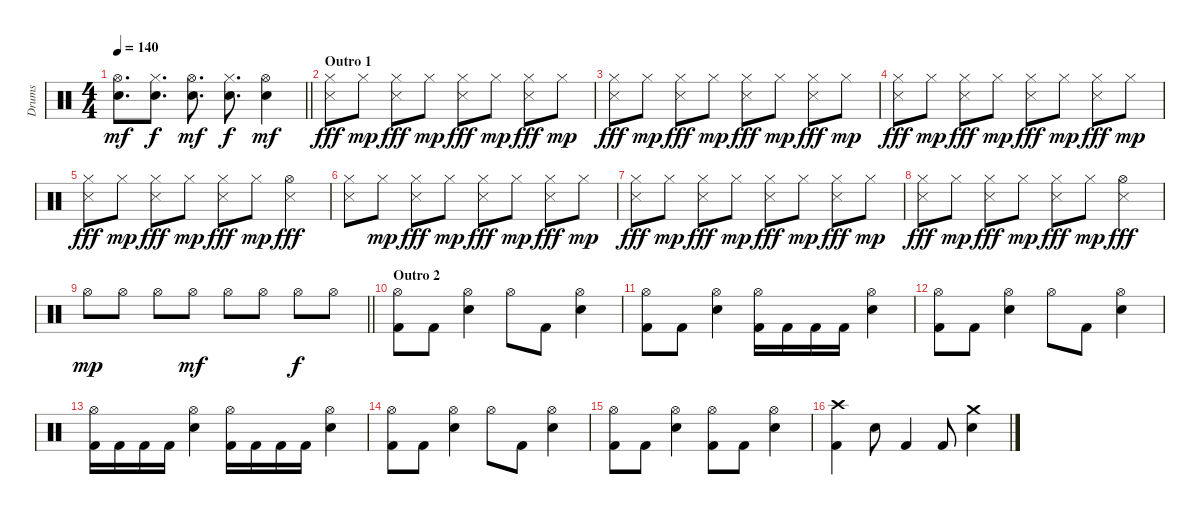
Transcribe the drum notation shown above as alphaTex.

\track ("Drums" "Drums") {instrument percussion}
\staff {score}
\articulation defaults
\ts (4 4)
\tempo 140
\clef neutral
\barLineRight lightlight
\ks c
("Hi-Hat (open)" "Snare (hit) 2").8{d dy mf} ("Hi-Hat (closed)" "Snare (hit) 2").8{d dy f} ("Hi-Hat (open)" "Snare (hit) 2").8{d dy mf} ("Hi-Hat (closed)" "Snare (hit) 2").8{d dy f} ("Hi-Hat (open)" "Snare (hit) 2").4{dy mf} |
\section ("" "Outro 1")
("Hi-Hat (closed)" "Snare (side stick) 3").8{dy fff} "Hi-Hat (closed)".8{dy mp} ("Hi-Hat (closed)" "Snare (side stick) 3").8{dy fff} "Hi-Hat (closed)".8{dy mp} ("Hi-Hat (closed)" "Snare (side stick) 3").8{dy fff} "Hi-Hat (closed)".8{dy mp} ("Hi-Hat (closed)" "Snare (side stick) 3").8{dy fff} "Hi-Hat (closed)".8{dy mp} |
("Hi-Hat (closed)" "Snare (side stick) 3").8{dy fff} "Hi-Hat (closed)".8{dy mp} ("Hi-Hat (closed)" "Snare (side stick) 3").8{dy fff} "Hi-Hat (closed)".8{dy mp} ("Hi-Hat (closed)" "Snare (side stick) 3").8{dy fff} "Hi-Hat (closed)".8{dy mp} ("Hi-Hat (closed)" "Snare (side stick) 3").8{dy fff} "Hi-Hat (closed)".8{dy mp} |
("Hi-Hat (closed)" "Snare (side stick) 3").8{dy fff} "Hi-Hat (closed)".8{dy mp} ("Hi-Hat (closed)" "Snare (side stick) 3").8{dy fff} "Hi-Hat (closed)".8{dy mp} ("Hi-Hat (closed)" "Snare (side stick) 3").8{dy fff} "Hi-Hat (closed)".8{dy mp} ("Hi-Hat (closed)" "Snare (side stick) 3").8{dy fff} "Hi-Hat (closed)".8{dy mp} |
("Hi-Hat (closed)" "Snare (side stick) 3").8{dy fff} "Hi-Hat (closed)".8{dy mp} ("Hi-Hat (closed)" "Snare (side stick) 3").8{dy fff} "Hi-Hat (closed)".8{dy mp} ("Hi-Hat (closed)" "Snare (side stick) 3").8{dy fff} "Hi-Hat (closed)".8{dy mp} ("Hi-Hat (open)" "Snare (side stick) 3").4{dy fff} |
("Hi-Hat (closed)" "Snare (side stick) 3").8 "Hi-Hat (closed)".8{dy mp} ("Hi-Hat (closed)" "Snare (side stick) 3").8{dy fff} "Hi-Hat (closed)".8{dy mp} ("Hi-Hat (closed)" "Snare (side stick) 3").8{dy fff} "Hi-Hat (closed)".8{dy mp} ("Hi-Hat (closed)" "Snare (side stick) 3").8{dy fff} "Hi-Hat (closed)".8{dy mp} |
("Hi-Hat (closed)" "Snare (side stick) 3").8{dy fff} "Hi-Hat (closed)".8{dy mp} ("Hi-Hat (closed)" "Snare (side stick) 3").8{dy fff} "Hi-Hat (closed)".8{dy mp} ("Hi-Hat (closed)" "Snare (side stick) 3").8{dy fff} "Hi-Hat (closed)".8{dy mp} ("Hi-Hat (closed)" "Snare (side stick) 3").8{dy fff} "Hi-Hat (closed)".8{dy mp} |
("Hi-Hat (closed)" "Snare (side stick) 3").8{dy fff} "Hi-Hat (closed)".8{dy mp} ("Hi-Hat (closed)" "Snare (side stick) 3").8{dy fff} "Hi-Hat (closed)".8{dy mp} ("Hi-Hat (closed)" "Snare (side stick) 3").8{dy fff} "Hi-Hat (closed)".8{dy mp} ("Hi-Hat (open)" "Snare (side stick) 3").4{dy fff} |
\barLineRight lightlight "Hi-Hat (open)".8{dy mp} "Hi-Hat (open)".8 "Hi-Hat (open)".8 "Hi-Hat (open)".8{dy mf} "Hi-Hat (open)".8 "Hi-Hat (open)".8 "Hi-Hat (open)".8{dy f} "Hi-Hat (open)".8
|
\section ("" "Outro 2")
("Hi-Hat (open)" "Kick (hit) 2").8 "Kick (hit) 2".8 ("Hi-Hat (open)" "Snare (hit) 2").4 "Hi-Hat (open)".8 "Kick (hit) 2".8 ("Hi-Hat (open)" "Snare (hit) 2").4 |
("Hi-Hat (open)" "Kick (hit) 2").8 "Kick (hit) 2".8 ("Hi-Hat (open)" "Snare (hit) 2").4 ("Hi-Hat (open)" "Kick (hit) 2").16 "Kick (hit) 2".16 "Kick (hit) 2".16 "Kick (hit) 2".16 ("Hi-Hat (open)" "Snare (hit) 2").4 |
("Hi-Hat (open)" "Kick (hit) 2").8 "Kick (hit) 2".8 ("Hi-Hat (open)" "Snare (hit) 2").4 "Hi-Hat (open)".8 "Kick (hit) 2".8 ("Hi-Hat (open)" "Snare (hit) 2").4 |
("Hi-Hat (open)" "Kick (hit) 2").16 "Kick (hit) 2".16 "Kick (hit) 2".16 "Kick (hit) 2".16 ("Hi-Hat (open)" "Snare (hit) 2").4 ("Hi-Hat (open)" "Kick (hit) 2").16 "Kick (hit) 2".16 "Kick (hit) 2".16 "Kick (hit) 2".16 ("Hi-Hat (open)" "Snare (hit) 2").4 |
("Hi-Hat (open)" "Kick (hit) 2").8 "Kick (hit) 2".8 ("Hi-Hat (open)" "Snare (hit) 2").4 "Hi-Hat (open)".8 "Kick (hit) 2".8 ("Hi-Hat (open)" "Snare (hit) 2").4 |
("Hi-Hat (open)" "Kick (hit) 2").8 "Kick (hit) 2".8 ("Hi-Hat (open)" "Snare (hit) 2").4 ("Hi-Hat (open)" "Kick (hit) 2").8 "Kick (hit) 2".8 ("Hi-Hat (open)" "Snare (hit) 2").4 |
("Crash high (hit)" "Kick (hit) 2").4 "Snare (hit) 2".8 "Kick (hit) 2".4 "Kick (hit) 2".8 ("Crash medium (hit)" "Snare (hit) 2").4
